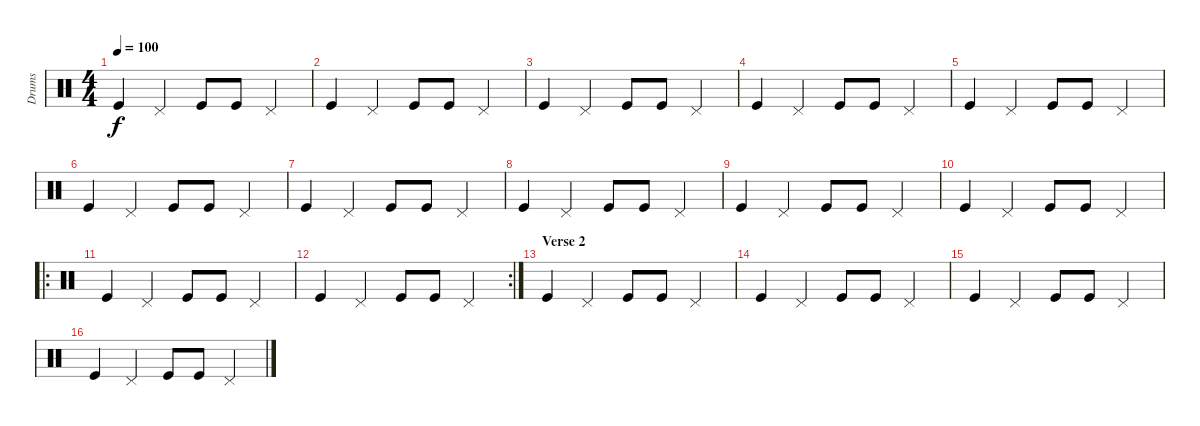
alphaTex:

\track ("Drums" "Drums") {instrument percussion}
\staff {score}
\articulation defaults
\ts (4 4)
\tempo 100
\clef neutral
\ks c "Kick (hit)".4{dy f} "Pedal Hi-Hat (hit)".4 "Kick (hit)".8 "Kick (hit)".8 "Pedal Hi-Hat (hit)".4
|
"Kick (hit)".4 "Pedal Hi-Hat (hit)".4 "Kick (hit)".8 "Kick (hit)".8 "Pedal Hi-Hat (hit)".4 |
"Kick (hit)".4 "Pedal Hi-Hat (hit)".4 "Kick (hit)".8 "Kick (hit)".8 "Pedal Hi-Hat (hit)".4 |
"Kick (hit)".4 "Pedal Hi-Hat (hit)".4 "Kick (hit)".8 "Kick (hit)".8 "Pedal Hi-Hat (hit)".4 |
"Kick (hit)".4 "Pedal Hi-Hat (hit)".4 "Kick (hit)".8 "Kick (hit)".8 "Pedal Hi-Hat (hit)".4 |
"Kick (hit)".4 "Pedal Hi-Hat (hit)".4 "Kick (hit)".8 "Kick (hit)".8 "Pedal Hi-Hat (hit)".4 |
"Kick (hit)".4 "Pedal Hi-Hat (hit)".4 "Kick (hit)".8 "Kick (hit)".8 "Pedal Hi-Hat (hit)".4 |
"Kick (hit)".4 "Pedal Hi-Hat (hit)".4 "Kick (hit)".8 "Kick (hit)".8 "Pedal Hi-Hat (hit)".4 |
"Kick (hit)".4 "Pedal Hi-Hat (hit)".4 "Kick (hit)".8 "Kick (hit)".8 "Pedal Hi-Hat (hit)".4 |
"Kick (hit)".4 "Pedal Hi-Hat (hit)".4 "Kick (hit)".8 "Kick (hit)".8 "Pedal Hi-Hat (hit)".4 |
\ro "Kick (hit)".4 "Pedal Hi-Hat (hit)".4 "Kick (hit)".8 "Kick (hit)".8 "Pedal Hi-Hat (hit)".4
|
\rc 2 "Kick (hit)".4 "Pedal Hi-Hat (hit)".4 "Kick (hit)".8 "Kick (hit)".8 "Pedal Hi-Hat (hit)".4
|
\section ("" "Verse 2")
"Kick (hit)".4 "Pedal Hi-Hat (hit)".4 "Kick (hit)".8 "Kick (hit)".8 "Pedal Hi-Hat (hit)".4 |
"Kick (hit)".4 "Pedal Hi-Hat (hit)".4 "Kick (hit)".8 "Kick (hit)".8 "Pedal Hi-Hat (hit)".4 |
"Kick (hit)".4 "Pedal Hi-Hat (hit)".4 "Kick (hit)".8 "Kick (hit)".8 "Pedal Hi-Hat (hit)".4 |
"Kick (hit)".4 "Pedal Hi-Hat (hit)".4 "Kick (hit)".8 "Kick (hit)".8 "Pedal Hi-Hat (hit)".4
